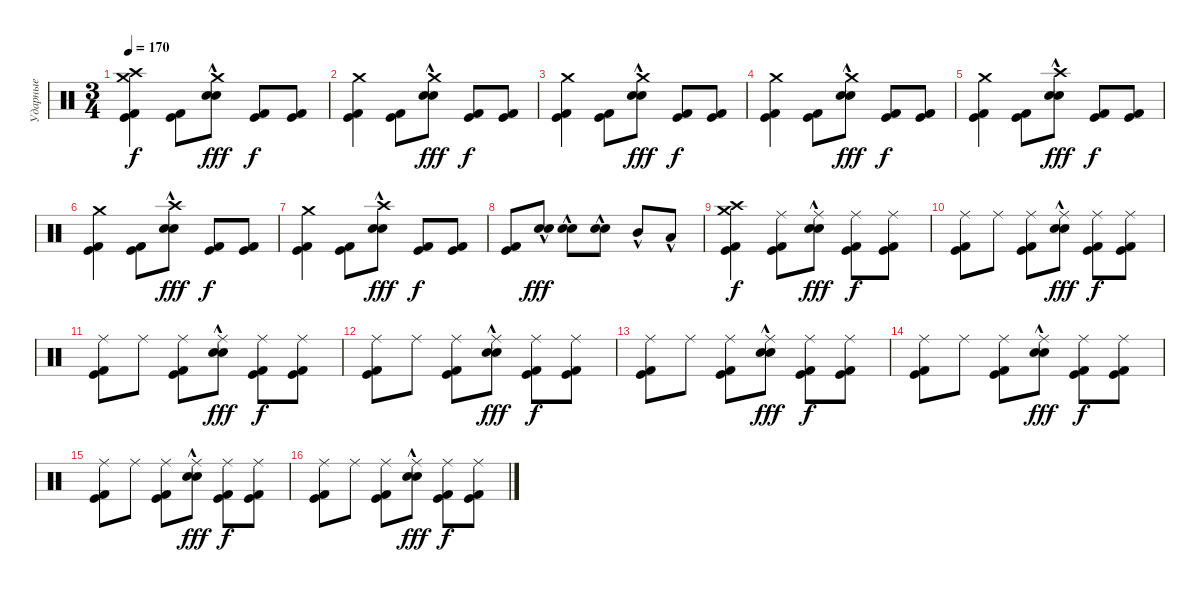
\track ("Ударные" "Ударные") {instrument percussion}
\staff {score}
\articulation defaults
\ts (3 4)
\tempo 170
\clef neutral
\ks c
("Crash high (hit)" "Kick (hit)" "Kick (hit) 2" "Crash medium (hit)").4{dy f} ("Kick (hit)" "Kick (hit) 2").8 ("Crash medium (hit)" "Snare (hit) 2"{hac} "Electric Snare (hit)"{hac}).8{dy fff} ("Kick (hit)" "Kick (hit) 2").8{dy f} ("Kick (hit)" "Kick (hit) 2").8 |
("Crash medium (hit)" "Kick (hit)" "Kick (hit) 2").4 ("Kick (hit)" "Kick (hit) 2").8 ("Crash medium (hit)" "Snare (hit) 2"{hac} "Electric Snare (hit)"{hac}).8{dy fff} ("Kick (hit)" "Kick (hit) 2").8{dy f} ("Kick (hit)" "Kick (hit) 2").8 |
("Crash medium (hit)" "Kick (hit)" "Kick (hit) 2").4 ("Kick (hit)" "Kick (hit) 2").8 ("Crash medium (hit)" "Snare (hit) 2"{hac} "Electric Snare (hit)"{hac}).8{dy fff} ("Kick (hit)" "Kick (hit) 2").8{dy f} ("Kick (hit)" "Kick (hit) 2").8 |
("Crash medium (hit)" "Kick (hit)" "Kick (hit) 2").4 ("Kick (hit)" "Kick (hit) 2").8 ("Crash medium (hit)" "Snare (hit) 2"{hac} "Electric Snare (hit)"{hac}).8{dy fff} ("Kick (hit)" "Kick (hit) 2").8{dy f} ("Kick (hit)" "Kick (hit) 2").8 |
("Crash medium (hit)" "Kick (hit)" "Kick (hit) 2").4 ("Kick (hit)" "Kick (hit) 2").8 ("Crash high (hit)" "Snare (hit) 2"{hac} "Electric Snare (hit)"{hac}).8{dy fff} ("Kick (hit)" "Kick (hit) 2").8{dy f} ("Kick (hit)" "Kick (hit) 2").8 |
("Crash medium (hit)" "Kick (hit)" "Kick (hit) 2").4 ("Kick (hit)" "Kick (hit) 2").8 ("Crash high (hit)" "Snare (hit) 2"{hac} "Electric Snare (hit)"{hac}).8{dy fff} ("Kick (hit)" "Kick (hit) 2").8{dy f} ("Kick (hit)" "Kick (hit) 2").8 |
("Crash medium (hit)" "Kick (hit)" "Kick (hit) 2").4 ("Kick (hit)" "Kick (hit) 2").8 ("Crash high (hit)" "Snare (hit) 2"{hac} "Electric Snare (hit)"{hac}).8{dy fff} ("Kick (hit)" "Kick (hit) 2").8{dy f} ("Kick (hit)" "Kick (hit) 2").8 |
("Kick (hit)" "Kick (hit) 2").8 ("Snare (hit) 2"{hac} "Electric Snare (hit)"{hac}).8{dy fff} ("Snare (hit) 2"{hac} "Electric Snare (hit)"{hac}).8 ("Snare (hit) 2"{hac} "Electric Snare (hit)"{hac}).8 "Mid Tom (hit)"{hac}.8 "Low Tom (hit)"{hac}.8 |
("Crash high (hit)" "Kick (hit)" "Kick (hit) 2" "Crash medium (hit)").4{dy f} ("Ride (middle)" "Kick (hit)" "Kick (hit) 2").8 ("Ride (middle)" "Snare (hit) 2"{hac} "Electric Snare (hit)"{hac}).8{dy fff} ("Ride (middle)" "Kick (hit)" "Kick (hit) 2").8{dy f} ("Ride (middle)" "Kick (hit)" "Kick (hit) 2").8 |
("Ride (middle)" "Kick (hit)" "Kick (hit) 2").8 "Ride (middle)".8 ("Ride (middle)" "Kick (hit)" "Kick (hit) 2").8 ("Ride (middle)" "Snare (hit) 2"{hac} "Electric Snare (hit)"{hac}).8{dy fff} ("Ride (middle)" "Kick (hit)" "Kick (hit) 2").8{dy f} ("Ride (middle)" "Kick (hit)" "Kick (hit) 2").8 |
("Ride (middle)" "Kick (hit)" "Kick (hit) 2").8 "Ride (middle)".8 ("Ride (middle)" "Kick (hit)" "Kick (hit) 2").8 ("Ride (middle)" "Snare (hit) 2"{hac} "Electric Snare (hit)"{hac}).8{dy fff} ("Ride (middle)" "Kick (hit)" "Kick (hit) 2").8{dy f} ("Ride (middle)" "Kick (hit)" "Kick (hit) 2").8 |
("Ride (middle)" "Kick (hit)" "Kick (hit) 2").8 "Ride (middle)".8 ("Ride (middle)" "Kick (hit)" "Kick (hit) 2").8 ("Ride (middle)" "Snare (hit) 2"{hac} "Electric Snare (hit)"{hac}).8{dy fff} ("Ride (middle)" "Kick (hit)" "Kick (hit) 2").8{dy f} ("Ride (middle)" "Kick (hit)" "Kick (hit) 2").8 |
("Ride (middle)" "Kick (hit)" "Kick (hit) 2").8 "Ride (middle)".8 ("Ride (middle)" "Kick (hit)" "Kick (hit) 2").8 ("Ride (middle)" "Snare (hit) 2"{hac} "Electric Snare (hit)"{hac}).8{dy fff} ("Ride (middle)" "Kick (hit)" "Kick (hit) 2").8{dy f} ("Ride (middle)" "Kick (hit)" "Kick (hit) 2").8 |
("Ride (middle)" "Kick (hit)" "Kick (hit) 2").8 "Ride (middle)".8 ("Ride (middle)" "Kick (hit)" "Kick (hit) 2").8 ("Ride (middle)" "Snare (hit) 2"{hac} "Electric Snare (hit)"{hac}).8{dy fff} ("Ride (middle)" "Kick (hit)" "Kick (hit) 2").8{dy f} ("Ride (middle)" "Kick (hit)" "Kick (hit) 2").8 |
("Ride (middle)" "Kick (hit)" "Kick (hit) 2").8 "Ride (middle)".8 ("Ride (middle)" "Kick (hit)" "Kick (hit) 2").8 ("Ride (middle)" "Snare (hit) 2"{hac} "Electric Snare (hit)"{hac}).8{dy fff} ("Ride (middle)" "Kick (hit)" "Kick (hit) 2").8{dy f} ("Ride (middle)" "Kick (hit)" "Kick (hit) 2").8 |
("Ride (middle)" "Kick (hit)" "Kick (hit) 2").8 "Ride (middle)".8 ("Ride (middle)" "Kick (hit)" "Kick (hit) 2").8 ("Ride (middle)" "Snare (hit) 2"{hac} "Electric Snare (hit)"{hac}).8{dy fff} ("Ride (middle)" "Kick (hit)" "Kick (hit) 2").8{dy f} ("Ride (middle)" "Kick (hit)" "Kick (hit) 2").8
